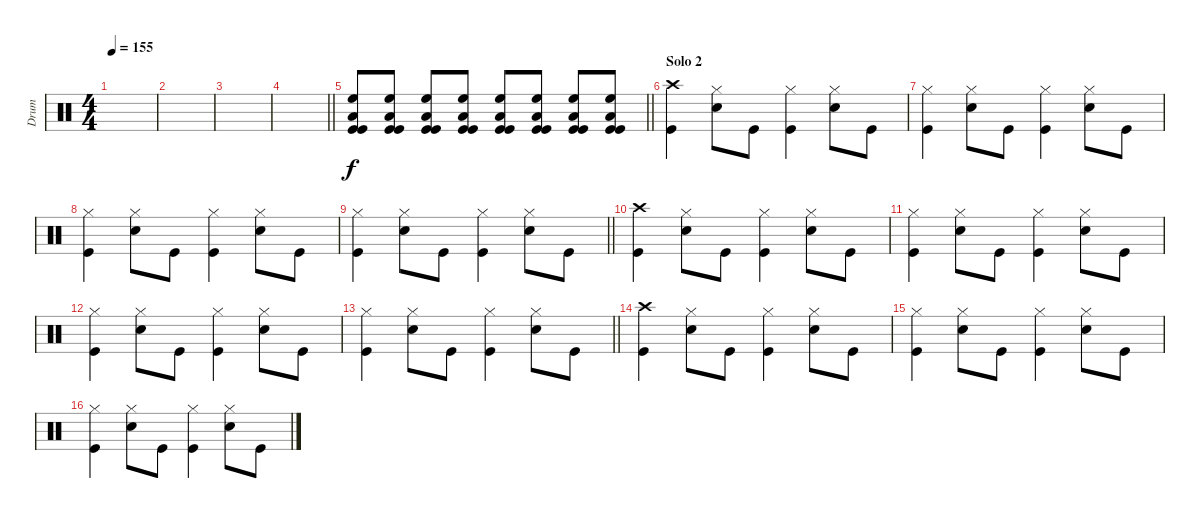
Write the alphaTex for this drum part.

\track ("Drum" "Drum") {instrument percussion}
\staff {score}
\articulation defaults
\ts (4 4)
\tempo 155
\clef neutral
\ks c
|
|
|
\barLineRight lightlight
|
\barLineRight lightlight
("Kick (hit)" "Kick (hit)" "High Floor Tom (hit)" "Low Tom (hit)").8 ("Kick (hit)" "Kick (hit)" "High Floor Tom (hit)" "Low Tom (hit)").8 ("Kick (hit)" "Kick (hit)" "High Floor Tom (hit)" "Low Tom (hit)").8 ("Kick (hit)" "Kick (hit)" "High Floor Tom (hit)" "Low Tom (hit)").8 ("Kick (hit)" "Kick (hit)" "High Floor Tom (hit)" "Low Tom (hit)").8 ("Kick (hit)" "Kick (hit)" "High Floor Tom (hit)" "Low Tom (hit)").8 ("Kick (hit)" "Kick (hit)" "High Floor Tom (hit)" "Low Tom (hit)").8 ("Kick (hit)" "Kick (hit)" "High Floor Tom (hit)" "Low Tom (hit)").8 |
\section ("" "Solo 2")
("Crash high (hit)" "Kick (hit)").4 ("Hi-Hat (closed)" "Snare (hit) 2").8 "Kick (hit)".8 ("Hi-Hat (closed)" "Kick (hit)").4 ("Snare (hit) 2" "Hi-Hat (closed)").8 "Kick (hit)".8 |
("Kick (hit)" "Hi-Hat (closed)").4 ("Hi-Hat (closed)" "Snare (hit) 2").8 "Kick (hit)".8 ("Hi-Hat (closed)" "Kick (hit)").4 ("Snare (hit) 2" "Hi-Hat (closed)").8 "Kick (hit)".8 |
("Kick (hit)" "Hi-Hat (closed)").4 ("Hi-Hat (closed)" "Snare (hit) 2").8 "Kick (hit)".8 ("Hi-Hat (closed)" "Kick (hit)").4 ("Snare (hit) 2" "Hi-Hat (closed)").8 "Kick (hit)".8 |
\barLineRight lightlight
("Kick (hit)" "Hi-Hat (closed)").4 ("Hi-Hat (closed)" "Snare (hit) 2").8 "Kick (hit)".8 ("Hi-Hat (closed)" "Kick (hit)").4 ("Snare (hit) 2" "Hi-Hat (closed)").8 "Kick (hit)".8 |
("Crash high (hit)" "Kick (hit)").4 ("Hi-Hat (closed)" "Snare (hit) 2").8 "Kick (hit)".8 ("Hi-Hat (closed)" "Kick (hit)").4 ("Snare (hit) 2" "Hi-Hat (closed)").8 "Kick (hit)".8 |
("Kick (hit)" "Hi-Hat (closed)").4 ("Hi-Hat (closed)" "Snare (hit) 2").8 "Kick (hit)".8 ("Hi-Hat (closed)" "Kick (hit)").4 ("Snare (hit) 2" "Hi-Hat (closed)").8 "Kick (hit)".8 |
("Kick (hit)" "Hi-Hat (closed)").4 ("Hi-Hat (closed)" "Snare (hit) 2").8 "Kick (hit)".8 ("Hi-Hat (closed)" "Kick (hit)").4 ("Snare (hit) 2" "Hi-Hat (closed)").8 "Kick (hit)".8 |
\barLineRight lightlight
("Kick (hit)" "Hi-Hat (closed)").4 ("Hi-Hat (closed)" "Snare (hit) 2").8 "Kick (hit)".8 ("Hi-Hat (closed)" "Kick (hit)").4 ("Snare (hit) 2" "Hi-Hat (closed)").8 "Kick (hit)".8 |
("Crash high (hit)" "Kick (hit)").4 ("Hi-Hat (closed)" "Snare (hit) 2").8 "Kick (hit)".8 ("Hi-Hat (closed)" "Kick (hit)").4 ("Snare (hit) 2" "Hi-Hat (closed)").8 "Kick (hit)".8 |
("Kick (hit)" "Hi-Hat (closed)").4 ("Hi-Hat (closed)" "Snare (hit) 2").8 "Kick (hit)".8 ("Hi-Hat (closed)" "Kick (hit)").4 ("Snare (hit) 2" "Hi-Hat (closed)").8 "Kick (hit)".8 |
("Kick (hit)" "Hi-Hat (closed)").4 ("Hi-Hat (closed)" "Snare (hit) 2").8 "Kick (hit)".8 ("Hi-Hat (closed)" "Kick (hit)").4 ("Snare (hit) 2" "Hi-Hat (closed)").8 "Kick (hit)".8
